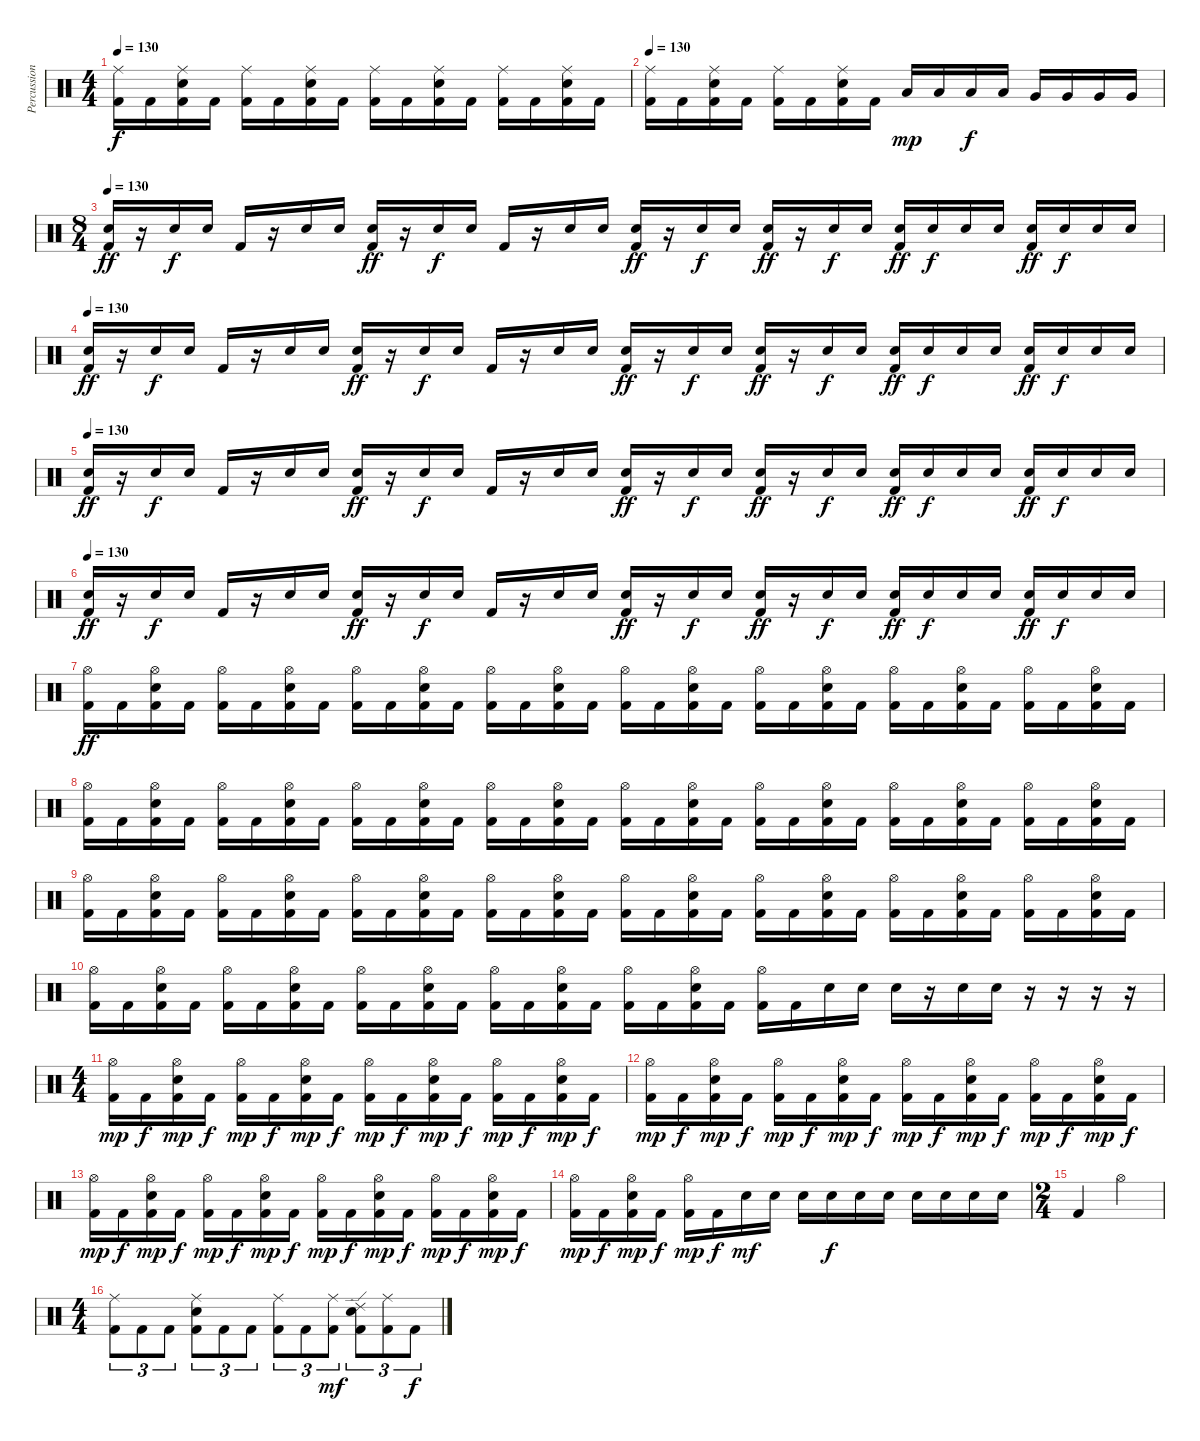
\track ("Percussion" "Percussion") {instrument percussion}
\staff {score}
\articulation defaults
\ts (4 4)
\tempo 130
\clef neutral
\ks c
("Ride (middle)" "Kick (hit) 2").16{dy f} "Kick (hit) 2".16 ("Ride (middle)" "Snare (hit) 2" "Kick (hit) 2").16 "Kick (hit) 2".16 ("Ride (middle)" "Kick (hit) 2").16 "Kick (hit) 2".16 ("Ride (middle)" "Snare (hit) 2" "Kick (hit) 2").16 "Kick (hit) 2".16 ("Ride (middle)" "Kick (hit) 2").16 "Kick (hit) 2".16 ("Ride (middle)" "Snare (hit) 2" "Kick (hit) 2").16 "Kick (hit) 2".16 ("Ride (middle)" "Kick (hit) 2").16 "Kick (hit) 2".16 ("Ride (middle)" "Snare (hit) 2" "Kick (hit) 2").16 "Kick (hit) 2".16 |
\tempo 130
("Ride (middle)" "Kick (hit) 2").16 "Kick (hit) 2".16 ("Ride (middle)" "Snare (hit) 2" "Kick (hit) 2").16 "Kick (hit) 2".16 ("Ride (middle)" "Kick (hit) 2").16 "Kick (hit) 2".16 ("Ride (middle)" "Snare (hit) 2" "Kick (hit) 2").16 "Kick (hit) 2".16 "Low Tom (hit)".16{dy mp} "Low Tom (hit)".16 "Low Tom (hit)".16{dy f} "Low Tom (hit)".16 "Very Low Tom (hit)".16 "Very Low Tom (hit)".16 "Very Low Tom (hit)".16 "Very Low Tom (hit)".16 |
\ts (8 4)
\tempo 130
("Snare (hit) 2" "Kick (hit) 2").16{dy ff} r.16 "Snare (hit) 2".16{dy f} "Snare (hit) 2".16 "Kick (hit) 2".16 r.16 "Snare (hit) 2".16 "Snare (hit) 2".16 ("Snare (hit) 2" "Kick (hit) 2").16{dy ff} r.16 "Snare (hit) 2".16{dy f} "Snare (hit) 2".16 "Kick (hit) 2".16 r.16 "Snare (hit) 2".16 "Snare (hit) 2".16 ("Snare (hit) 2" "Kick (hit) 2").16{dy ff} r.16 "Snare (hit) 2".16{dy f} "Snare (hit) 2".16 ("Snare (hit) 2" "Kick (hit) 2").16{dy ff} r.16 "Snare (hit) 2".16{dy f} "Snare (hit) 2".16 ("Snare (hit) 2" "Kick (hit) 2").16{dy ff} "Snare (hit) 2".16{dy f} "Snare (hit) 2".16 "Snare (hit) 2".16 ("Snare (hit) 2" "Kick (hit) 2").16{dy ff} "Snare (hit) 2".16{dy f} "Snare (hit) 2".16 "Snare (hit) 2".16 |
\tempo 130
("Snare (hit) 2" "Kick (hit) 2").16{dy ff} r.16 "Snare (hit) 2".16{dy f} "Snare (hit) 2".16 "Kick (hit) 2".16 r.16 "Snare (hit) 2".16 "Snare (hit) 2".16 ("Snare (hit) 2" "Kick (hit) 2").16{dy ff} r.16 "Snare (hit) 2".16{dy f} "Snare (hit) 2".16 "Kick (hit) 2".16 r.16 "Snare (hit) 2".16 "Snare (hit) 2".16 ("Snare (hit) 2" "Kick (hit) 2").16{dy ff} r.16 "Snare (hit) 2".16{dy f} "Snare (hit) 2".16 ("Snare (hit) 2" "Kick (hit) 2").16{dy ff} r.16 "Snare (hit) 2".16{dy f} "Snare (hit) 2".16 ("Snare (hit) 2" "Kick (hit) 2").16{dy ff} "Snare (hit) 2".16{dy f} "Snare (hit) 2".16 "Snare (hit) 2".16 ("Snare (hit) 2" "Kick (hit) 2").16{dy ff} "Snare (hit) 2".16{dy f} "Snare (hit) 2".16 "Snare (hit) 2".16 |
\tempo 130
("Snare (hit) 2" "Kick (hit) 2").16{dy ff} r.16 "Snare (hit) 2".16{dy f} "Snare (hit) 2".16 "Kick (hit) 2".16 r.16 "Snare (hit) 2".16 "Snare (hit) 2".16 ("Snare (hit) 2" "Kick (hit) 2").16{dy ff} r.16 "Snare (hit) 2".16{dy f} "Snare (hit) 2".16 "Kick (hit) 2".16 r.16 "Snare (hit) 2".16 "Snare (hit) 2".16 ("Snare (hit) 2" "Kick (hit) 2").16{dy ff} r.16 "Snare (hit) 2".16{dy f} "Snare (hit) 2".16 ("Snare (hit) 2" "Kick (hit) 2").16{dy ff} r.16 "Snare (hit) 2".16{dy f} "Snare (hit) 2".16 ("Snare (hit) 2" "Kick (hit) 2").16{dy ff} "Snare (hit) 2".16{dy f} "Snare (hit) 2".16 "Snare (hit) 2".16 ("Snare (hit) 2" "Kick (hit) 2").16{dy ff} "Snare (hit) 2".16{dy f} "Snare (hit) 2".16 "Snare (hit) 2".16 |
\tempo 130
("Snare (hit) 2" "Kick (hit) 2").16{dy ff} r.16 "Snare (hit) 2".16{dy f} "Snare (hit) 2".16 "Kick (hit) 2".16 r.16 "Snare (hit) 2".16 "Snare (hit) 2".16 ("Snare (hit) 2" "Kick (hit) 2").16{dy ff} r.16 "Snare (hit) 2".16{dy f} "Snare (hit) 2".16 "Kick (hit) 2".16 r.16 "Snare (hit) 2".16 "Snare (hit) 2".16 ("Snare (hit) 2" "Kick (hit) 2").16{dy ff} r.16 "Snare (hit) 2".16{dy f} "Snare (hit) 2".16 ("Snare (hit) 2" "Kick (hit) 2").16{dy ff} r.16 "Snare (hit) 2".16{dy f} "Snare (hit) 2".16 ("Snare (hit) 2" "Kick (hit) 2").16{dy ff} "Snare (hit) 2".16{dy f} "Snare (hit) 2".16 "Snare (hit) 2".16 ("Snare (hit) 2" "Kick (hit) 2").16{dy ff} "Snare (hit) 2".16{dy f} "Snare (hit) 2".16 "Snare (hit) 2".16 |
("Hi-Hat (open)" "Kick (hit) 2").16{dy ff} "Kick (hit) 2".16 ("Hi-Hat (open)" "Snare (hit) 2" "Kick (hit) 2").16 "Kick (hit) 2".16 ("Hi-Hat (open)" "Kick (hit) 2").16 "Kick (hit) 2".16 ("Hi-Hat (open)" "Snare (hit) 2" "Kick (hit) 2").16 "Kick (hit) 2".16 ("Hi-Hat (open)" "Kick (hit) 2").16 "Kick (hit) 2".16 ("Hi-Hat (open)" "Snare (hit) 2" "Kick (hit) 2").16 "Kick (hit) 2".16 ("Hi-Hat (open)" "Kick (hit) 2").16 "Kick (hit) 2".16 ("Hi-Hat (open)" "Snare (hit) 2" "Kick (hit) 2").16 "Kick (hit) 2".16 ("Hi-Hat (open)" "Kick (hit) 2").16 "Kick (hit) 2".16 ("Hi-Hat (open)" "Snare (hit) 2" "Kick (hit) 2").16 "Kick (hit) 2".16 ("Hi-Hat (open)" "Kick (hit) 2").16 "Kick (hit) 2".16 ("Hi-Hat (open)" "Snare (hit) 2" "Kick (hit) 2").16 "Kick (hit) 2".16 ("Hi-Hat (open)" "Kick (hit) 2").16 "Kick (hit) 2".16 ("Hi-Hat (open)" "Snare (hit) 2" "Kick (hit) 2").16 "Kick (hit) 2".16 ("Hi-Hat (open)" "Kick (hit) 2").16 "Kick (hit) 2".16 ("Hi-Hat (open)" "Snare (hit) 2" "Kick (hit) 2").16 "Kick (hit) 2".16 |
("Hi-Hat (open)" "Kick (hit) 2").16 "Kick (hit) 2".16 ("Hi-Hat (open)" "Snare (hit) 2" "Kick (hit) 2").16 "Kick (hit) 2".16 ("Hi-Hat (open)" "Kick (hit) 2").16 "Kick (hit) 2".16 ("Hi-Hat (open)" "Snare (hit) 2" "Kick (hit) 2").16 "Kick (hit) 2".16 ("Hi-Hat (open)" "Kick (hit) 2").16 "Kick (hit) 2".16 ("Hi-Hat (open)" "Snare (hit) 2" "Kick (hit) 2").16 "Kick (hit) 2".16 ("Hi-Hat (open)" "Kick (hit) 2").16 "Kick (hit) 2".16 ("Hi-Hat (open)" "Snare (hit) 2" "Kick (hit) 2").16 "Kick (hit) 2".16 ("Hi-Hat (open)" "Kick (hit) 2").16 "Kick (hit) 2".16 ("Hi-Hat (open)" "Snare (hit) 2" "Kick (hit) 2").16 "Kick (hit) 2".16 ("Hi-Hat (open)" "Kick (hit) 2").16 "Kick (hit) 2".16 ("Hi-Hat (open)" "Snare (hit) 2" "Kick (hit) 2").16 "Kick (hit) 2".16 ("Hi-Hat (open)" "Kick (hit) 2").16 "Kick (hit) 2".16 ("Hi-Hat (open)" "Snare (hit) 2" "Kick (hit) 2").16 "Kick (hit) 2".16 ("Hi-Hat (open)" "Kick (hit) 2").16 "Kick (hit) 2".16 ("Hi-Hat (open)" "Snare (hit) 2" "Kick (hit) 2").16 "Kick (hit) 2".16 |
("Hi-Hat (open)" "Kick (hit) 2").16 "Kick (hit) 2".16 ("Hi-Hat (open)" "Snare (hit) 2" "Kick (hit) 2").16 "Kick (hit) 2".16 ("Hi-Hat (open)" "Kick (hit) 2").16 "Kick (hit) 2".16 ("Hi-Hat (open)" "Snare (hit) 2" "Kick (hit) 2").16 "Kick (hit) 2".16 ("Hi-Hat (open)" "Kick (hit) 2").16 "Kick (hit) 2".16 ("Hi-Hat (open)" "Snare (hit) 2" "Kick (hit) 2").16 "Kick (hit) 2".16 ("Hi-Hat (open)" "Kick (hit) 2").16 "Kick (hit) 2".16 ("Hi-Hat (open)" "Snare (hit) 2" "Kick (hit) 2").16 "Kick (hit) 2".16 ("Hi-Hat (open)" "Kick (hit) 2").16 "Kick (hit) 2".16 ("Hi-Hat (open)" "Snare (hit) 2" "Kick (hit) 2").16 "Kick (hit) 2".16 ("Hi-Hat (open)" "Kick (hit) 2").16 "Kick (hit) 2".16 ("Hi-Hat (open)" "Snare (hit) 2" "Kick (hit) 2").16 "Kick (hit) 2".16 ("Hi-Hat (open)" "Kick (hit) 2").16 "Kick (hit) 2".16 ("Hi-Hat (open)" "Snare (hit) 2" "Kick (hit) 2").16 "Kick (hit) 2".16 ("Hi-Hat (open)" "Kick (hit) 2").16 "Kick (hit) 2".16 ("Hi-Hat (open)" "Snare (hit) 2" "Kick (hit) 2").16 "Kick (hit) 2".16 |
("Hi-Hat (open)" "Kick (hit) 2").16 "Kick (hit) 2".16 ("Hi-Hat (open)" "Snare (hit) 2" "Kick (hit) 2").16 "Kick (hit) 2".16 ("Hi-Hat (open)" "Kick (hit) 2").16 "Kick (hit) 2".16 ("Hi-Hat (open)" "Snare (hit) 2" "Kick (hit) 2").16 "Kick (hit) 2".16 ("Hi-Hat (open)" "Kick (hit) 2").16 "Kick (hit) 2".16 ("Hi-Hat (open)" "Snare (hit) 2" "Kick (hit) 2").16 "Kick (hit) 2".16 ("Hi-Hat (open)" "Kick (hit) 2").16 "Kick (hit) 2".16 ("Hi-Hat (open)" "Snare (hit) 2" "Kick (hit) 2").16 "Kick (hit) 2".16 ("Hi-Hat (open)" "Kick (hit) 2").16 "Kick (hit) 2".16 ("Hi-Hat (open)" "Snare (hit) 2" "Kick (hit) 2").16 "Kick (hit) 2".16 ("Hi-Hat (open)" "Kick (hit) 2").16 "Kick (hit) 2".16 "Snare (hit) 2".16 "Snare (hit) 2".16 "Snare (hit) 2".16 r.16 "Snare (hit) 2".16 "Snare (hit) 2".16 r.16 r.16 r.16 r.16 |
\ts (4 4)
("Hi-Hat (open)" "Kick (hit) 2").16{dy mp} "Kick (hit) 2".16{dy f} ("Hi-Hat (open)" "Snare (hit) 2" "Kick (hit) 2").16{dy mp} "Kick (hit) 2".16{dy f} ("Hi-Hat (open)" "Kick (hit) 2").16{dy mp} "Kick (hit) 2".16{dy f} ("Hi-Hat (open)" "Snare (hit) 2" "Kick (hit) 2").16{dy mp} "Kick (hit) 2".16{dy f} ("Hi-Hat (open)" "Kick (hit) 2").16{dy mp} "Kick (hit) 2".16{dy f} ("Hi-Hat (open)" "Snare (hit) 2" "Kick (hit) 2").16{dy mp} "Kick (hit) 2".16{dy f} ("Hi-Hat (open)" "Kick (hit) 2").16{dy mp} "Kick (hit) 2".16{dy f} ("Hi-Hat (open)" "Snare (hit) 2" "Kick (hit) 2").16{dy mp} "Kick (hit) 2".16{dy f} |
("Hi-Hat (open)" "Kick (hit) 2").16{dy mp} "Kick (hit) 2".16{dy f} ("Hi-Hat (open)" "Snare (hit) 2" "Kick (hit) 2").16{dy mp} "Kick (hit) 2".16{dy f} ("Hi-Hat (open)" "Kick (hit) 2").16{dy mp} "Kick (hit) 2".16{dy f} ("Hi-Hat (open)" "Snare (hit) 2" "Kick (hit) 2").16{dy mp} "Kick (hit) 2".16{dy f} ("Hi-Hat (open)" "Kick (hit) 2").16{dy mp} "Kick (hit) 2".16{dy f} ("Hi-Hat (open)" "Snare (hit) 2" "Kick (hit) 2").16{dy mp} "Kick (hit) 2".16{dy f} ("Hi-Hat (open)" "Kick (hit) 2").16{dy mp} "Kick (hit) 2".16{dy f} ("Hi-Hat (open)" "Snare (hit) 2" "Kick (hit) 2").16{dy mp} "Kick (hit) 2".16{dy f} |
("Hi-Hat (open)" "Kick (hit) 2").16{dy mp} "Kick (hit) 2".16{dy f} ("Hi-Hat (open)" "Snare (hit) 2" "Kick (hit) 2").16{dy mp} "Kick (hit) 2".16{dy f} ("Hi-Hat (open)" "Kick (hit) 2").16{dy mp} "Kick (hit) 2".16{dy f} ("Hi-Hat (open)" "Snare (hit) 2" "Kick (hit) 2").16{dy mp} "Kick (hit) 2".16{dy f} ("Hi-Hat (open)" "Kick (hit) 2").16{dy mp} "Kick (hit) 2".16{dy f} ("Hi-Hat (open)" "Snare (hit) 2" "Kick (hit) 2").16{dy mp} "Kick (hit) 2".16{dy f} ("Hi-Hat (open)" "Kick (hit) 2").16{dy mp} "Kick (hit) 2".16{dy f} ("Hi-Hat (open)" "Snare (hit) 2" "Kick (hit) 2").16{dy mp} "Kick (hit) 2".16{dy f} |
("Hi-Hat (open)" "Kick (hit) 2").16{dy mp} "Kick (hit) 2".16{dy f} ("Hi-Hat (open)" "Snare (hit) 2" "Kick (hit) 2").16{dy mp} "Kick (hit) 2".16{dy f} ("Hi-Hat (open)" "Kick (hit) 2").16{dy mp} "Kick (hit) 2".16{dy f} "Snare (hit) 2".16{dy mf} "Snare (hit) 2".16 "Snare (hit) 2".16 "Snare (hit) 2".16{dy f} "Snare (hit) 2".16 "Snare (hit) 2".16 "Snare (hit) 2".16 "Snare (hit) 2".16 "Snare (hit) 2".16 "Snare (hit) 2".16 |
\ts (2 4)
"Kick (hit) 2".4 "Hi-Hat (open)".4 |
\ts (4 4)
("Ride (middle)" "Kick (hit) 2").8{tu (3 2)} "Kick (hit) 2".8{tu (3 2)} "Kick (hit) 2".8{tu (3 2)} ("Ride (middle)" "Snare (hit) 2" "Kick (hit) 2").8{tu (3 2)} "Kick (hit) 2".8{tu (3 2)} "Kick (hit) 2".8{tu (3 2)} ("Ride (middle)" "Kick (hit) 2").8{tu (3 2)} "Kick (hit) 2".8{tu (3 2)} ("Ride (middle)" "Kick (hit) 2").8{tu (3 2) dy mf} ("Ride (edge) 2" "Snare (hit) 2" "Kick (hit) 2").8{tu (3 2)} ("Ride (middle)" "Kick (hit) 2").8{tu (3 2)} "Kick (hit) 2".8{tu (3 2) dy f}
